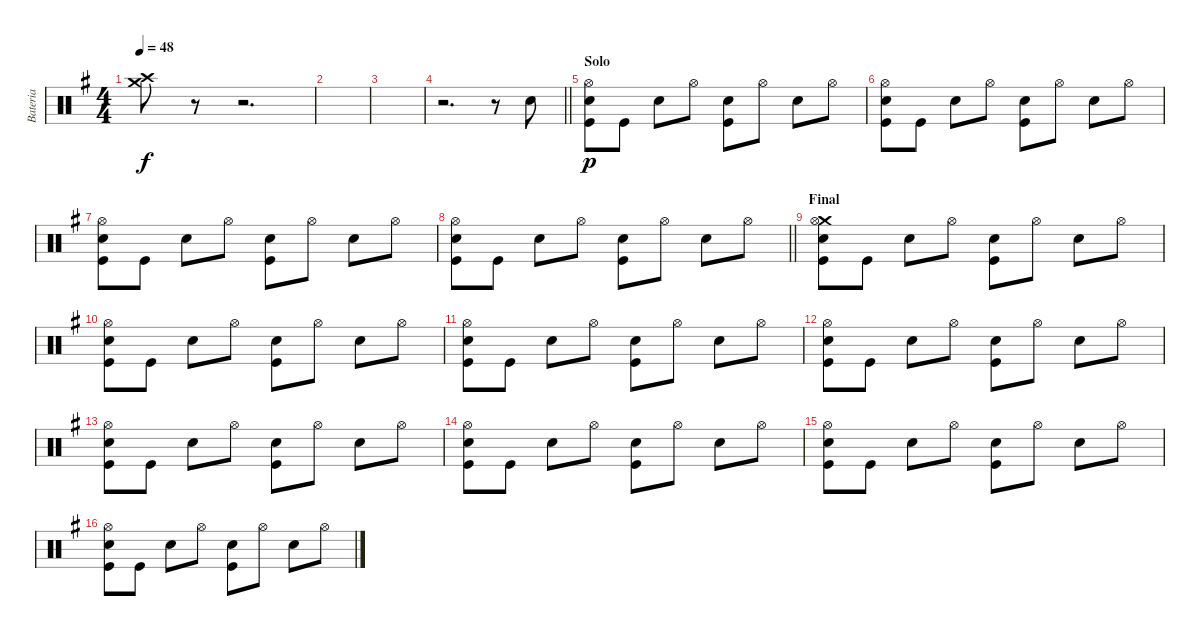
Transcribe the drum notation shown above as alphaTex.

\track ("Bateria" "Bateria") {instrument percussion}
\staff {score}
\articulation defaults
\ts (4 4)
\tempo 48
\clef neutral
\ks g
("Crash high (hit)" "Crash medium (hit)").8{dy f} r.8 r.2{d} |
|
|
\barLineRight lightlight
r.2{d} r.8 "Snare (hit) 2".8 |
\section ("" "Solo")
("Hi-Hat (open)" "Electric Snare (hit)" "Kick (hit)").8{dy p} "Kick (hit)".8 "Snare (hit) 2".8 "Hi-Hat (open)".8 ("Snare (hit) 2" "Kick (hit)").8 "Hi-Hat (open)".8 "Snare (hit) 2".8 "Hi-Hat (open)".8 |
("Hi-Hat (open)" "Electric Snare (hit)" "Kick (hit)").8 "Kick (hit)".8 "Snare (hit) 2".8 "Hi-Hat (open)".8 ("Snare (hit) 2" "Kick (hit)").8 "Hi-Hat (open)".8 "Snare (hit) 2".8 "Hi-Hat (open)".8 |
("Hi-Hat (open)" "Electric Snare (hit)" "Kick (hit)").8 "Kick (hit)".8 "Snare (hit) 2".8 "Hi-Hat (open)".8 ("Snare (hit) 2" "Kick (hit)").8 "Hi-Hat (open)".8 "Snare (hit) 2".8 "Hi-Hat (open)".8 |
\barLineRight lightlight
("Hi-Hat (open)" "Electric Snare (hit)" "Kick (hit)").8 "Kick (hit)".8 "Snare (hit) 2".8 "Hi-Hat (open)".8 ("Snare (hit) 2" "Kick (hit)").8 "Hi-Hat (open)".8 "Snare (hit) 2".8 "Hi-Hat (open)".8 |
\section ("" "Final")
("Crash medium (hit)" "Hi-Hat (open)" "Electric Snare (hit)" "Kick (hit)").8 "Kick (hit)".8 "Snare (hit) 2".8 "Hi-Hat (open)".8 ("Snare (hit) 2" "Kick (hit)").8 "Hi-Hat (open)".8 "Snare (hit) 2".8 "Hi-Hat (open)".8 |
("Hi-Hat (open)" "Electric Snare (hit)" "Kick (hit)").8 "Kick (hit)".8 "Snare (hit) 2".8 "Hi-Hat (open)".8 ("Snare (hit) 2" "Kick (hit)").8 "Hi-Hat (open)".8 "Snare (hit) 2".8 "Hi-Hat (open)".8 |
("Hi-Hat (open)" "Electric Snare (hit)" "Kick (hit)").8 "Kick (hit)".8 "Snare (hit) 2".8 "Hi-Hat (open)".8 ("Snare (hit) 2" "Kick (hit)").8 "Hi-Hat (open)".8 "Snare (hit) 2".8 "Hi-Hat (open)".8 |
("Hi-Hat (open)" "Electric Snare (hit)" "Kick (hit)").8 "Kick (hit)".8 "Snare (hit) 2".8 "Hi-Hat (open)".8 ("Snare (hit) 2" "Kick (hit)").8 "Hi-Hat (open)".8 "Snare (hit) 2".8 "Hi-Hat (open)".8 |
("Hi-Hat (open)" "Electric Snare (hit)" "Kick (hit)").8 "Kick (hit)".8 "Snare (hit) 2".8 "Hi-Hat (open)".8 ("Snare (hit) 2" "Kick (hit)").8 "Hi-Hat (open)".8 "Snare (hit) 2".8 "Hi-Hat (open)".8 |
("Hi-Hat (open)" "Electric Snare (hit)" "Kick (hit)").8 "Kick (hit)".8 "Snare (hit) 2".8 "Hi-Hat (open)".8 ("Snare (hit) 2" "Kick (hit)").8 "Hi-Hat (open)".8 "Snare (hit) 2".8 "Hi-Hat (open)".8 |
("Hi-Hat (open)" "Electric Snare (hit)" "Kick (hit)").8 "Kick (hit)".8 "Snare (hit) 2".8 "Hi-Hat (open)".8 ("Snare (hit) 2" "Kick (hit)").8 "Hi-Hat (open)".8 "Snare (hit) 2".8 "Hi-Hat (open)".8 |
("Hi-Hat (open)" "Electric Snare (hit)" "Kick (hit)").8 "Kick (hit)".8 "Snare (hit) 2".8 "Hi-Hat (open)".8 ("Snare (hit) 2" "Kick (hit)").8 "Hi-Hat (open)".8 "Snare (hit) 2".8 "Hi-Hat (open)".8
